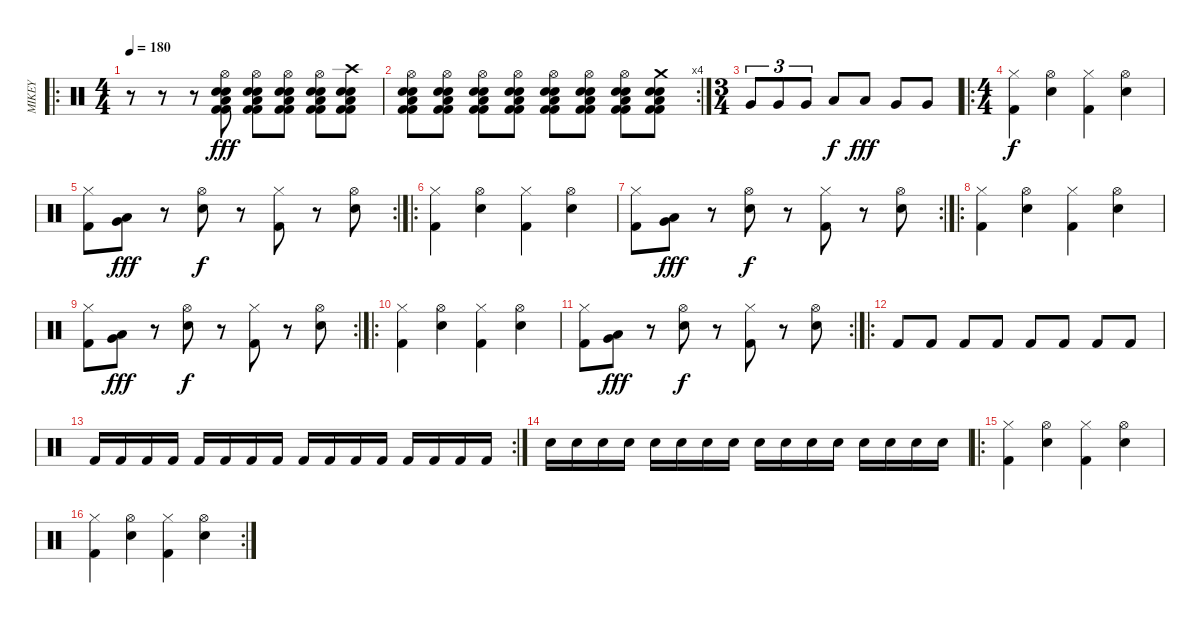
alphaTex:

\track ("MIKEY" "MIKEY") {instrument percussion}
\staff {score}
\articulation defaults
\ro
\ts (4 4)
\tempo 180
\clef neutral
\ks c
r.8{dy fff} r.8 r.8 ("Hi-Hat (open)" "Low Floor Tom (hit)" "Electric Snare (hit)" "Kick (hit) 2" "Snare (hit) 2" "Kick (hit) 2").8 ("Hi-Hat (open)" "Low Floor Tom (hit)" "Electric Snare (hit)" "Kick (hit) 2" "Snare (hit) 2" "Kick (hit) 2").8 ("Hi-Hat (open)" "Low Floor Tom (hit)" "Electric Snare (hit)" "Kick (hit) 2" "Snare (hit) 2" "Kick (hit) 2").8 ("Hi-Hat (open)" "Low Floor Tom (hit)" "Electric Snare (hit)" "Kick (hit) 2" "Snare (hit) 2" "Kick (hit) 2").8 ("Crash high (hit)" "Low Floor Tom (hit)" "Electric Snare (hit)" "Kick (hit) 2" "Snare (hit) 2" "Kick (hit) 2").8 |
\rc 4
("Hi-Hat (open)" "Low Floor Tom (hit)" "Electric Snare (hit)" "Kick (hit) 2" "Snare (hit) 2" "Kick (hit) 2").8 ("Hi-Hat (open)" "Low Floor Tom (hit)" "Electric Snare (hit)" "Kick (hit) 2" "Snare (hit) 2" "Kick (hit) 2").8 ("Hi-Hat (open)" "Low Floor Tom (hit)" "Electric Snare (hit)" "Kick (hit) 2" "Snare (hit) 2" "Kick (hit) 2").8 ("Hi-Hat (open)" "Low Floor Tom (hit)" "Electric Snare (hit)" "Kick (hit) 2" "Snare (hit) 2" "Kick (hit) 2").8 ("Hi-Hat (open)" "Low Floor Tom (hit)" "Electric Snare (hit)" "Kick (hit) 2" "Snare (hit) 2" "Kick (hit) 2").8 ("Hi-Hat (open)" "Low Floor Tom (hit)" "Electric Snare (hit)" "Kick (hit) 2" "Snare (hit) 2" "Kick (hit) 2").8 ("Hi-Hat (open)" "Low Floor Tom (hit)" "Electric Snare (hit)" "Kick (hit) 2" "Snare (hit) 2" "Kick (hit) 2").8 ("Crash medium (hit)" "Low Floor Tom (hit)" "Electric Snare (hit)" "Kick (hit) 2" "Snare (hit) 2" "Kick (hit) 2").8 |
\ts (3 4)
"Very Low Tom (hit)".8{tu (3 2)} "Very Low Tom (hit)".8{tu (3 2)} "Very Low Tom (hit)".8{tu (3 2)} "Low Tom (hit)".8{dy f} "Low Floor Tom (hit)".8{dy fff} "Very Low Tom (hit)".8 "Very Low Tom (hit)".8 |
\ro
\ts (4 4)
("Hi-Hat (closed)" "Kick (hit) 2").4{dy f} ("Hi-Hat (open)" "Snare (hit) 2").4 ("Hi-Hat (closed)" "Kick (hit) 2").4 ("Hi-Hat (open)" "Snare (hit) 2").4 |
\rc 2
("Hi-Hat (closed)" "Kick (hit) 2").8 ("Low Tom (hit)" "Very Low Tom (hit)").8{dy fff} r.8 ("Hi-Hat (open)" "Snare (hit) 2").8{dy f} r.8 ("Hi-Hat (closed)" "Kick (hit) 2").8 r.8 ("Hi-Hat (open)" "Snare (hit) 2").8 |
\ro
("Hi-Hat (closed)" "Kick (hit) 2").4 ("Hi-Hat (open)" "Snare (hit) 2").4 ("Hi-Hat (closed)" "Kick (hit) 2").4 ("Hi-Hat (open)" "Snare (hit) 2").4 |
\rc 2
("Hi-Hat (closed)" "Kick (hit) 2").8 ("Low Tom (hit)" "Very Low Tom (hit)").8{dy fff} r.8 ("Hi-Hat (open)" "Snare (hit) 2").8{dy f} r.8 ("Hi-Hat (closed)" "Kick (hit) 2").8 r.8 ("Hi-Hat (open)" "Snare (hit) 2").8 |
\ro
("Hi-Hat (closed)" "Kick (hit) 2").4 ("Hi-Hat (open)" "Snare (hit) 2").4 ("Hi-Hat (closed)" "Kick (hit) 2").4 ("Hi-Hat (open)" "Snare (hit) 2").4 |
\rc 2
("Hi-Hat (closed)" "Kick (hit) 2").8 ("Low Tom (hit)" "Very Low Tom (hit)").8{dy fff} r.8 ("Hi-Hat (open)" "Snare (hit) 2").8{dy f} r.8 ("Hi-Hat (closed)" "Kick (hit) 2").8 r.8 ("Hi-Hat (open)" "Snare (hit) 2").8 |
\ro
("Hi-Hat (closed)" "Kick (hit) 2").4 ("Hi-Hat (open)" "Snare (hit) 2").4 ("Hi-Hat (closed)" "Kick (hit) 2").4 ("Hi-Hat (open)" "Snare (hit) 2").4 |
\rc 2
("Hi-Hat (closed)" "Kick (hit) 2").8 ("Low Tom (hit)" "Very Low Tom (hit)").8{dy fff} r.8 ("Hi-Hat (open)" "Snare (hit) 2").8{dy f} r.8 ("Hi-Hat (closed)" "Kick (hit) 2").8 r.8 ("Hi-Hat (open)" "Snare (hit) 2").8 |
\ro "Kick (hit) 2".8 "Kick (hit) 2".8 "Kick (hit) 2".8 "Kick (hit) 2".8 "Kick (hit) 2".8 "Kick (hit) 2".8 "Kick (hit) 2".8 "Kick (hit) 2".8
|
\rc 2 "Kick (hit) 2".16 "Kick (hit) 2".16 "Kick (hit) 2".16 "Kick (hit) 2".16 "Kick (hit) 2".16 "Kick (hit) 2".16 "Kick (hit) 2".16 "Kick (hit) 2".16 "Kick (hit) 2".16 "Kick (hit) 2".16 "Kick (hit) 2".16 "Kick (hit) 2".16 "Kick (hit) 2".16 "Kick (hit) 2".16 "Kick (hit) 2".16 "Kick (hit) 2".16
|
"Snare (hit) 2".16 "Snare (hit) 2".16 "Snare (hit) 2".16 "Snare (hit) 2".16 "Snare (hit) 2".16 "Snare (hit) 2".16 "Snare (hit) 2".16 "Snare (hit) 2".16 "Snare (hit) 2".16 "Snare (hit) 2".16 "Snare (hit) 2".16 "Snare (hit) 2".16 "Snare (hit) 2".16 "Snare (hit) 2".16 "Snare (hit) 2".16 "Snare (hit) 2".16 |
\ro
("Hi-Hat (closed)" "Kick (hit) 2").4 ("Hi-Hat (open)" "Snare (hit) 2").4 ("Hi-Hat (closed)" "Kick (hit) 2").4 ("Hi-Hat (open)" "Snare (hit) 2").4 |
\rc 2
("Hi-Hat (closed)" "Kick (hit) 2").4 ("Hi-Hat (open)" "Snare (hit) 2").4 ("Hi-Hat (closed)" "Kick (hit) 2").4 ("Hi-Hat (open)" "Snare (hit) 2").4
